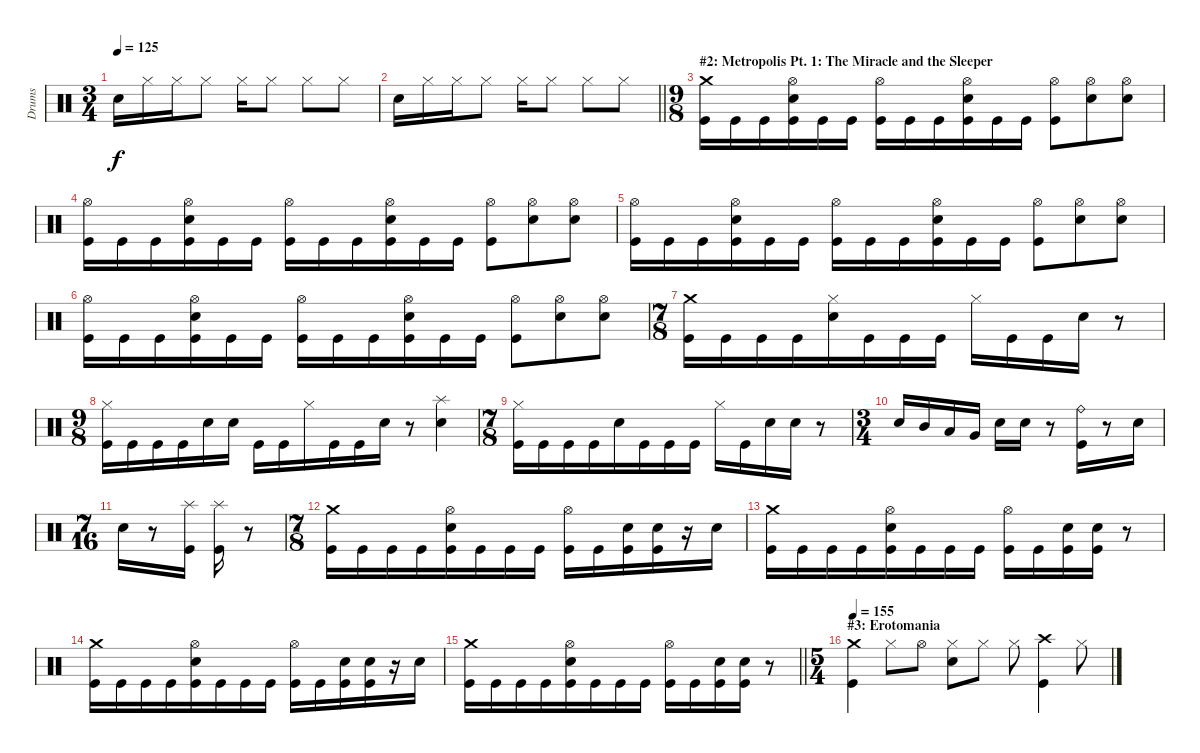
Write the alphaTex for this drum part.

\track ("Drums" "Drums") {instrument percussion}
\staff {score}
\articulation defaults
\ts (3 4)
\tempo 125
\clef neutral
\ks c "Snare (hit) 2".16{dy f} "Hi-Hat (closed)".16 "Hi-Hat (closed)".16 "Hi-Hat (closed)".8 "Hi-Hat (closed)".16 "Hi-Hat (closed)".8 "Hi-Hat (closed)".8 "Hi-Hat (closed)".8
|
\barLineRight lightlight "Snare (hit) 2".16 "Hi-Hat (closed)".16 "Hi-Hat (closed)".16 "Hi-Hat (closed)".8 "Hi-Hat (closed)".16 "Hi-Hat (closed)".8 "Hi-Hat (closed)".8 "Hi-Hat (closed)".8
|
\ts (9 8)
\section ("" "#2: Metropolis Pt. 1: The Miracle and the Sleeper")
("Crash medium (hit)" "Kick (hit)").16 "Kick (hit)".16 "Kick (hit)".16 ("Hi-Hat (open)" "Snare (hit) 2" "Kick (hit)").16 "Kick (hit)".16 "Kick (hit)".16 ("Hi-Hat (open)" "Kick (hit)").16 "Kick (hit)".16 "Kick (hit)".16 ("Hi-Hat (open)" "Snare (hit) 2" "Kick (hit)").16 "Kick (hit)".16 "Kick (hit)".16 ("Hi-Hat (open)" "Kick (hit)").8 ("Hi-Hat (open)" "Snare (hit) 2").8 ("Hi-Hat (open)" "Snare (hit) 2").8 |
("Hi-Hat (open)" "Kick (hit)").16 "Kick (hit)".16 "Kick (hit)".16 ("Hi-Hat (open)" "Snare (hit) 2" "Kick (hit)").16 "Kick (hit)".16 "Kick (hit)".16 ("Hi-Hat (open)" "Kick (hit)").16 "Kick (hit)".16 "Kick (hit)".16 ("Hi-Hat (open)" "Snare (hit) 2" "Kick (hit)").16 "Kick (hit)".16 "Kick (hit)".16 ("Hi-Hat (open)" "Kick (hit)").8 ("Hi-Hat (open)" "Snare (hit) 2").8 ("Hi-Hat (open)" "Snare (hit) 2").8 |
("Hi-Hat (open)" "Kick (hit)").16 "Kick (hit)".16 "Kick (hit)".16 ("Hi-Hat (open)" "Snare (hit) 2" "Kick (hit)").16 "Kick (hit)".16 "Kick (hit)".16 ("Hi-Hat (open)" "Kick (hit)").16 "Kick (hit)".16 "Kick (hit)".16 ("Hi-Hat (open)" "Snare (hit) 2" "Kick (hit)").16 "Kick (hit)".16 "Kick (hit)".16 ("Hi-Hat (open)" "Kick (hit)").8 ("Hi-Hat (open)" "Snare (hit) 2").8 ("Hi-Hat (open)" "Snare (hit) 2").8 |
("Hi-Hat (open)" "Kick (hit)").16 "Kick (hit)".16 "Kick (hit)".16 ("Hi-Hat (open)" "Snare (hit) 2" "Kick (hit)").16 "Kick (hit)".16 "Kick (hit)".16 ("Hi-Hat (open)" "Kick (hit)").16 "Kick (hit)".16 "Kick (hit)".16 ("Hi-Hat (open)" "Snare (hit) 2" "Kick (hit)").16 "Kick (hit)".16 "Kick (hit)".16 ("Hi-Hat (open)" "Kick (hit)").8 ("Hi-Hat (open)" "Snare (hit) 2").8 ("Hi-Hat (open)" "Snare (hit) 2").8 |
\ts (7 8)
("Crash medium (hit)" "Kick (hit)").16 "Kick (hit)".16 "Kick (hit)".16 "Kick (hit)".16 ("Hi-Hat (closed)" "Snare (hit) 2").16 "Kick (hit)".16 "Kick (hit)".16 "Kick (hit)".16 "Hi-Hat (closed)".16 "Kick (hit)".16 "Kick (hit)".16 "Snare (hit) 2".16 r.8 |
\ts (9 8)
("Hi-Hat (closed)" "Kick (hit)").16 "Kick (hit)".16 "Kick (hit)".16 "Kick (hit)".16 "Snare (hit) 2".16 "Snare (hit) 2".16 "Kick (hit)".16 "Kick (hit)".16 "Hi-Hat (closed)".16 "Kick (hit)".16 "Kick (hit)".16 "Snare (hit) 2".16 r.8 ("Splash (hit)" "Snare (hit) 2").4 |
\ts (7 8)
("Hi-Hat (closed)" "Kick (hit)").16 "Kick (hit)".16 "Kick (hit)".16 "Kick (hit)".16 "Snare (hit) 2".16 "Kick (hit)".16 "Kick (hit)".16 "Kick (hit)".16 "Hi-Hat (closed)".16 "Kick (hit)".16 "Snare (hit) 2".16 "Snare (hit) 2".16 r.8 |
\ts (3 4)
"Snare (hit) 2".16 "Mid Tom (hit)".16 "Low Tom (hit)".16 "Very Low Tom (hit)".16 "Snare (hit) 2".16 "Snare (hit) 2".16 r.8 ("Ride (bell)" "Kick (hit)").16 r.8 "Snare (hit) 2".16 |
\ts (7 16)
"Snare (hit) 2".16 r.8 ("Splash (hit)" "Kick (hit)").16 ("Splash (hit)" "Kick (hit)").16 r.8 |
\ts (7 8)
("Crash medium (hit)" "Kick (hit)").16 "Kick (hit)".16 "Kick (hit)".16 "Kick (hit)".16 ("Hi-Hat (open)" "Snare (hit) 2" "Kick (hit)").16 "Kick (hit)".16 "Kick (hit)".16 "Kick (hit)".16 ("Hi-Hat (open)" "Kick (hit)").16 "Kick (hit)".16 ("Snare (hit) 2" "Kick (hit)").16 ("Snare (hit) 2" "Kick (hit)").16 r.16 "Snare (hit) 2".16 |
("Crash medium (hit)" "Kick (hit)").16 "Kick (hit)".16 "Kick (hit)".16 "Kick (hit)".16 ("Hi-Hat (open)" "Snare (hit) 2" "Kick (hit)").16 "Kick (hit)".16 "Kick (hit)".16 "Kick (hit)".16 ("Hi-Hat (open)" "Kick (hit)").16 "Kick (hit)".16 ("Snare (hit) 2" "Kick (hit)").16 ("Snare (hit) 2" "Kick (hit)").16 r.8 |
("Crash medium (hit)" "Kick (hit)").16 "Kick (hit)".16 "Kick (hit)".16 "Kick (hit)".16 ("Hi-Hat (open)" "Snare (hit) 2" "Kick (hit)").16 "Kick (hit)".16 "Kick (hit)".16 "Kick (hit)".16 ("Hi-Hat (open)" "Kick (hit)").16 "Kick (hit)".16 ("Snare (hit) 2" "Kick (hit)").16 ("Snare (hit) 2" "Kick (hit)").16 r.16 "Snare (hit) 2".16 |
\barLineRight lightlight
("Crash medium (hit)" "Kick (hit)").16 "Kick (hit)".16 "Kick (hit)".16 "Kick (hit)".16 ("Hi-Hat (open)" "Snare (hit) 2" "Kick (hit)").16 "Kick (hit)".16 "Kick (hit)".16 "Kick (hit)".16 ("Hi-Hat (open)" "Kick (hit)").16 "Kick (hit)".16 ("Snare (hit) 2" "Kick (hit)").16 ("Snare (hit) 2" "Kick (hit)").16 r.8 |
\ts (5 4)
\section ("" "#3: Erotomania")
\tempo 155
("Crash medium (hit)" "Kick (hit)").4 "Hi-Hat (closed)".8 "Hi-Hat (open)".8 ("Hi-Hat (closed)" "Snare (hit) 2").8 "Hi-Hat (closed)".8 "Hi-Hat (closed)".8 ("Crash high (hit)" "Kick (hit)").4 "Hi-Hat (closed)".8
